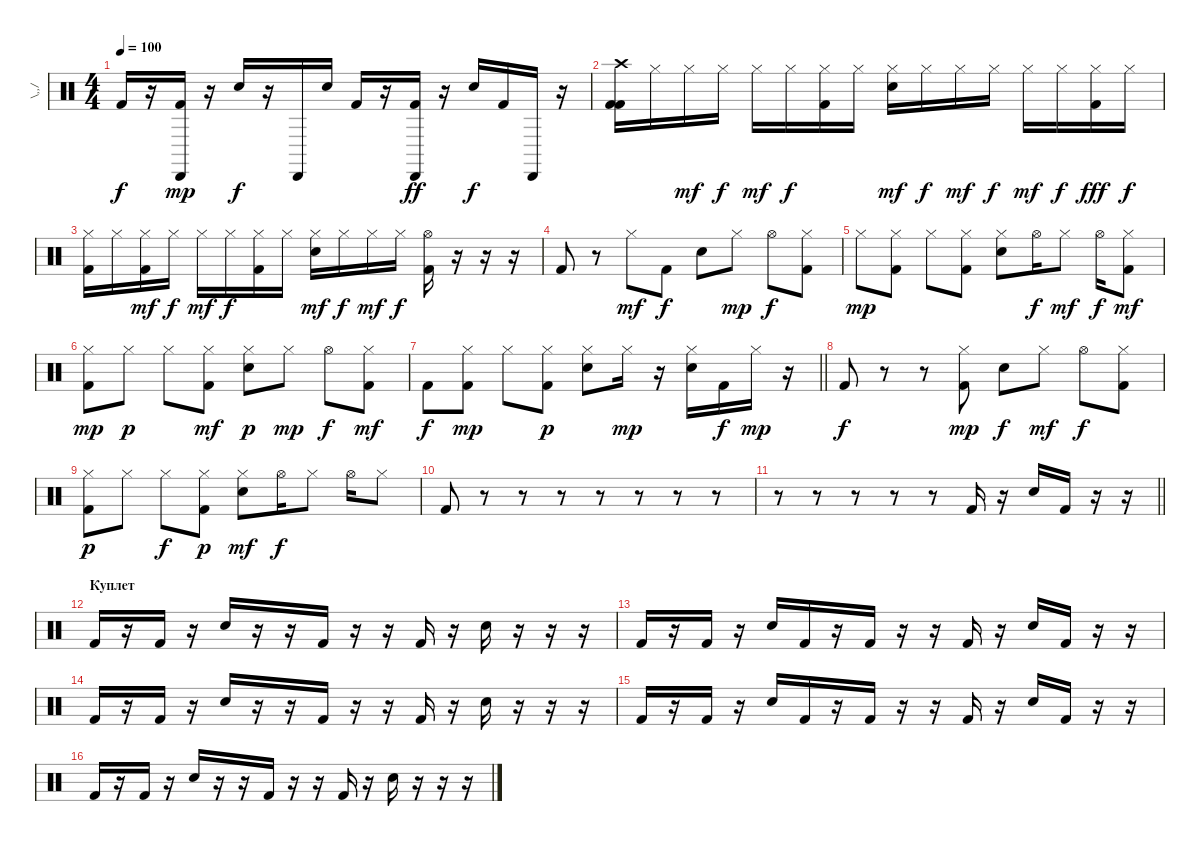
\track ("\\,,/    " "\\,,/    ") {instrument percussion}
\staff {score}
\articulation defaults
\ts (4 4)
\tempo 100
\clef neutral
\ks c "Kick (hit) 2".16{dy f}
r.16 ("Cabasa (hit)" "Kick (hit) 2").16{dy mp} r.16 "Electric Snare (hit)".16{dy f} r.16 "Cabasa (hit)".16 "Electric Snare (hit)".16 "Kick (hit) 2".16 r.16 ("Cabasa (hit)" "Kick (hit) 2").16{dy ff} r.16 "Electric Snare (hit)".16{dy f} "Kick (hit) 2".16 "Cabasa (hit)".16 r.16 |
("Crash high (hit)" "Kick (hit) 2" "Kick (hit) 2").16 "Hi-Hat (closed)".16 "Hi-Hat (closed)".16{dy mf} "Hi-Hat (closed)".16{dy f} "Hi-Hat (closed)".16{dy mf} "Hi-Hat (closed)".16{dy f} ("Hi-Hat (closed)" "Kick (hit) 2").16 "Hi-Hat (closed)".16 ("Hi-Hat (closed)" "Electric Snare (hit)").16{dy mf} "Hi-Hat (closed)".16{dy f} "Hi-Hat (closed)".16{dy mf} "Hi-Hat (closed)".16{dy f} "Hi-Hat (closed)".16{dy mf} "Hi-Hat (closed)".16{dy f} ("Hi-Hat (closed)" "Kick (hit) 2").16{dy fff} "Hi-Hat (closed)".16{dy f} |
("Hi-Hat (closed)" "Kick (hit) 2").16 "Hi-Hat (closed)".16 ("Hi-Hat (closed)" "Kick (hit) 2").16{dy mf} "Hi-Hat (closed)".16{dy f} "Hi-Hat (closed)".16{dy mf} "Hi-Hat (closed)".16{dy f} ("Hi-Hat (closed)" "Kick (hit) 2").16 "Hi-Hat (closed)".16 ("Hi-Hat (closed)" "Electric Snare (hit)").16{dy mf} "Hi-Hat (closed)".16{dy f} "Hi-Hat (closed)".16{dy mf} "Hi-Hat (closed)".16{dy f} ("Hi-Hat (open)" "Kick (hit) 2").16 r.16 r.16 r.16 |
"Kick (hit) 2".8 r.8 "Hi-Hat (closed)".8{dy mf} "Kick (hit) 2".8{dy f} "Electric Snare (hit)".8 "Hi-Hat (closed)".8{dy mp} "Hi-Hat (open)".8{dy f} ("Hi-Hat (closed)" "Kick (hit) 2").8 |
"Hi-Hat (closed)".8{dy mp} ("Hi-Hat (closed)" "Kick (hit) 2").8 "Hi-Hat (closed)".8 ("Hi-Hat (closed)" "Kick (hit) 2").8 ("Hi-Hat (closed)" "Electric Snare (hit)").8 "Hi-Hat (open)".16{dy f} "Hi-Hat (closed)".8{dy mf} "Hi-Hat (open)".16{dy f} ("Hi-Hat (closed)" "Kick (hit) 2").8{dy mf} |
("Hi-Hat (closed)" "Kick (hit) 2").8{dy mp} "Hi-Hat (closed)".8{dy p} "Hi-Hat (closed)".8 ("Hi-Hat (closed)" "Kick (hit) 2").8{dy mf} ("Hi-Hat (closed)" "Electric Snare (hit)").8{dy p} "Hi-Hat (closed)".8{dy mp} "Hi-Hat (open)".8{dy f} ("Hi-Hat (closed)" "Kick (hit) 2").8{dy mf} |
\barLineRight lightlight "Kick (hit) 2".8{dy f}
("Hi-Hat (closed)" "Kick (hit) 2").8{dy mp} "Hi-Hat (closed)".8 ("Hi-Hat (closed)" "Kick (hit) 2").8{dy p} ("Hi-Hat (closed)" "Electric Snare (hit)").8 "Hi-Hat (closed)".16{dy mp} r.16 ("Hi-Hat (closed)" "Electric Snare (hit)").16 "Kick (hit) 2".16{dy f} "Hi-Hat (closed)".16{dy mp} r.16 |
"Kick (hit) 2".8{dy f} r.8 r.8 ("Hi-Hat (closed)" "Kick (hit) 2").8{dy mp} "Electric Snare (hit)".8{dy f} "Hi-Hat (closed)".8{dy mf} "Hi-Hat (open)".8{dy f} ("Hi-Hat (closed)" "Kick (hit) 2").8 |
("Hi-Hat (closed)" "Kick (hit) 2").8{dy p} "Hi-Hat (closed)".8 "Hi-Hat (closed)".8{dy f} ("Hi-Hat (closed)" "Kick (hit) 2").8{dy p} ("Hi-Hat (closed)" "Electric Snare (hit)").8{dy mf} "Hi-Hat (open)".16{dy f} "Hi-Hat (closed)".8 "Hi-Hat (open)".16 "Hi-Hat (closed)".8 |
"Kick (hit) 2".8 r.8 r.8 r.8 r.8 r.8 r.8 r.8 |
\barLineRight lightlight
r.8 r.8 r.8 r.8 r.8 "Kick (hit) 2".16 r.16 "Electric Snare (hit)".16 "Kick (hit) 2".16 r.16 r.16 |
\section ("" "Куплет")
"Kick (hit) 2".16 r.16 "Kick (hit) 2".16 r.16 "Electric Snare (hit)".16 r.16 r.16 "Kick (hit) 2".16 r.16 r.16 "Kick (hit) 2".16 r.16 "Electric Snare (hit)".16 r.16 r.16 r.16 |
"Kick (hit) 2".16 r.16 "Kick (hit) 2".16 r.16 "Electric Snare (hit)".16 "Kick (hit) 2".16 r.16 "Kick (hit) 2".16 r.16 r.16 "Kick (hit) 2".16 r.16 "Electric Snare (hit)".16 "Kick (hit) 2".16 r.16 r.16 |
"Kick (hit) 2".16 r.16 "Kick (hit) 2".16 r.16 "Electric Snare (hit)".16 r.16 r.16 "Kick (hit) 2".16 r.16 r.16 "Kick (hit) 2".16 r.16 "Electric Snare (hit)".16 r.16 r.16 r.16 |
"Kick (hit) 2".16 r.16 "Kick (hit) 2".16 r.16 "Electric Snare (hit)".16 "Kick (hit) 2".16 r.16 "Kick (hit) 2".16 r.16 r.16 "Kick (hit) 2".16 r.16 "Electric Snare (hit)".16 "Kick (hit) 2".16 r.16 r.16 |
"Kick (hit) 2".16 r.16 "Kick (hit) 2".16 r.16 "Electric Snare (hit)".16 r.16 r.16 "Kick (hit) 2".16 r.16 r.16 "Kick (hit) 2".16 r.16 "Electric Snare (hit)".16 r.16 r.16 r.16
